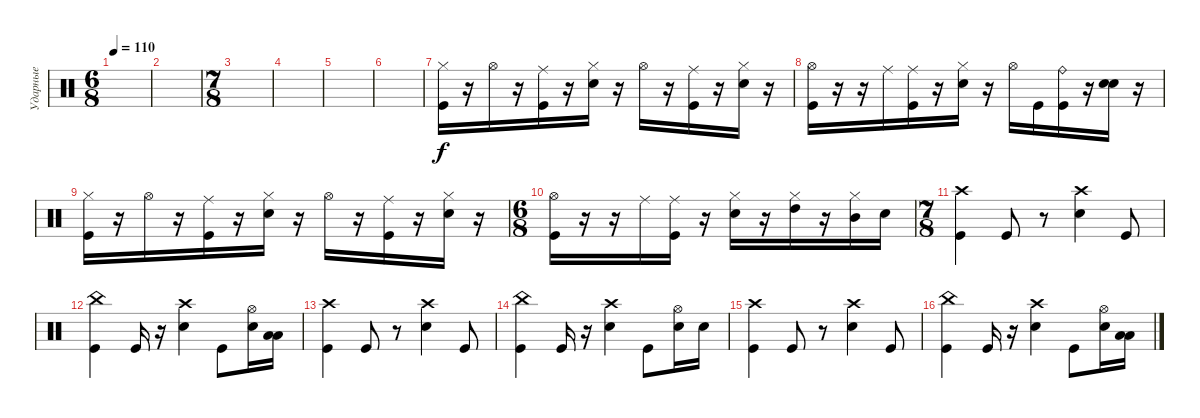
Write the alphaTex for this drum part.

\track ("Ударные" "Ударные") {instrument percussion}
\staff {score}
\articulation defaults
\ts (6 8)
\tempo 110
\clef neutral
\ks c
|
|
\ts (7 8)
|
|
|
|
("Hi-Hat (closed)" "Kick (hit)").16 r.16 "Hi-Hat (open)".16 r.16 ("Ride (middle)" "Kick (hit)").16 r.16 ("Hi-Hat (closed)" "Snare (hit) 2").16 r.16 "Hi-Hat (open)".16 r.16 ("Ride (middle)" "Kick (hit)").16 r.16 ("Hi-Hat (closed)" "Snare (hit) 2").16 r.16 |
("Hi-Hat (open)" "Kick (hit)").16 r.16 r.16 "Ride (middle)".16 ("Ride (middle)" "Kick (hit)").16 r.16 ("Hi-Hat (closed)" "Snare (hit) 2").16 r.16 "Hi-Hat (open)".16 "Kick (hit)".16 ("Ride (bell)" "Kick (hit)").16 r.16 ("Snare (hit) 2" "Snare (hit) 2").16{bd 120} r.16 |
("Hi-Hat (closed)" "Kick (hit)").16 r.16 "Hi-Hat (open)".16 r.16 ("Ride (middle)" "Kick (hit)").16 r.16 ("Hi-Hat (closed)" "Snare (hit) 2").16 r.16 "Hi-Hat (open)".16 r.16 ("Ride (middle)" "Kick (hit)").16 r.16 ("Hi-Hat (closed)" "Snare (hit) 2").16 r.16 |
\ts (6 8)
("Hi-Hat (open)" "Kick (hit)").16 r.16 r.16 "Ride (middle)".16 ("Ride (middle)" "Kick (hit)").16 r.16 ("Hi-Hat (closed)" "Snare (hit) 2").16 r.16 ("Hi-Hat (closed)" "High Tom (hit)").16 r.16 ("Hi-Hat (closed)" "Mid Tom (hit)").16 "Snare (hit) 2".16 |
\ts (7 8)
("Crash high (hit)" "Kick (hit)").4 "Kick (hit)".8 r.8 ("Crash high (hit)" "Snare (hit) 2").4 "Kick (hit)".8 |
("China (hit)" "Kick (hit)").4 "Kick (hit)".16 r.16 ("Crash high (hit)" "Snare (hit) 2").4 "Kick (hit)".8 ("Hi-Hat (open)" "Snare (hit) 2").16 ("Low Tom (hit)" "Low Tom (hit)").16{bu 120} |
("Crash high (hit)" "Kick (hit)").4 "Kick (hit)".8 r.8 ("Crash high (hit)" "Snare (hit) 2").4 "Kick (hit)".8 |
("China (hit)" "Kick (hit)").4 "Kick (hit)".16 r.16 ("Crash high (hit)" "Snare (hit) 2").4 "Kick (hit)".8 ("Hi-Hat (open)" "Snare (hit) 2").16 "Snare (hit) 2".16 |
("Crash high (hit)" "Kick (hit)").4 "Kick (hit)".8 r.8 ("Crash high (hit)" "Snare (hit) 2").4 "Kick (hit)".8 |
("China (hit)" "Kick (hit)").4 "Kick (hit)".16 r.16 ("Crash high (hit)" "Snare (hit) 2").4 "Kick (hit)".8 ("Hi-Hat (open)" "Snare (hit) 2").16 ("Low Tom (hit)" "Low Tom (hit)").16{bu 120}
